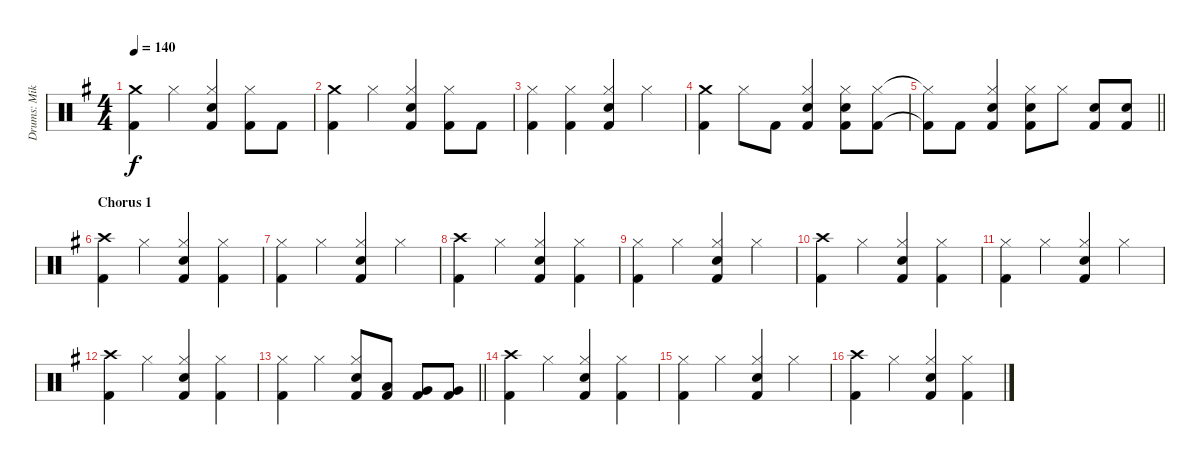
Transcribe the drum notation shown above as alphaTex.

\track ("Drums: Mike Terrana" "Drums: Mik") {instrument percussion}
\staff {score}
\articulation defaults
\ts (4 4)
\tempo 140
\clef neutral
\ks eminor
("Crash medium (hit)" "Kick (hit) 2").4{dy f} "Hi-Hat (closed)".4 ("Hi-Hat (closed)" "Electric Snare (hit)" "Kick (hit) 2").4 ("Hi-Hat (closed)" "Kick (hit) 2").8 "Kick (hit) 2".8 |
("Crash medium (hit)" "Kick (hit) 2").4 "Hi-Hat (closed)".4 ("Hi-Hat (closed)" "Electric Snare (hit)" "Kick (hit) 2").4 ("Hi-Hat (closed)" "Kick (hit) 2").8 "Kick (hit) 2".8 |
("Hi-Hat (closed)" "Kick (hit) 2").4 ("Hi-Hat (closed)" "Kick (hit) 2").4 ("Hi-Hat (closed)" "Electric Snare (hit)" "Kick (hit) 2").4 "Hi-Hat (closed)".4 |
("Crash medium (hit)" "Kick (hit) 2").4 "Hi-Hat (closed)".8 "Kick (hit) 2".8 ("Hi-Hat (closed)" "Electric Snare (hit)" "Kick (hit) 2").4 ("Hi-Hat (closed)" "Electric Snare (hit)" "Kick (hit) 2").8 ("Hi-Hat (closed)" "Kick (hit) 2").8 |
\barLineRight lightlight
("Hi-Hat (closed)"{t} "Kick (hit) 2"{t}).8 "Kick (hit) 2".8 ("Hi-Hat (closed)" "Electric Snare (hit)" "Kick (hit) 2").4 ("Hi-Hat (closed)" "Electric Snare (hit)" "Kick (hit) 2").8 "Hi-Hat (closed)".8 ("Electric Snare (hit)" "Kick (hit) 2").8 ("Electric Snare (hit)" "Kick (hit) 2").8 |
\section ("" "Chorus 1")
("Crash high (hit)" "Kick (hit) 2").4 "Hi-Hat (closed)".4 ("Hi-Hat (closed)" "Electric Snare (hit)" "Kick (hit) 2").4 ("Hi-Hat (closed)" "Kick (hit) 2").4 |
("Hi-Hat (closed)" "Kick (hit) 2").4 "Hi-Hat (closed)".4 ("Hi-Hat (closed)" "Electric Snare (hit)" "Kick (hit) 2").4 "Hi-Hat (closed)".4 |
("Crash high (hit)" "Kick (hit) 2").4 "Hi-Hat (closed)".4 ("Hi-Hat (closed)" "Electric Snare (hit)" "Kick (hit) 2").4 ("Hi-Hat (closed)" "Kick (hit) 2").4 |
("Hi-Hat (closed)" "Kick (hit) 2").4 "Hi-Hat (closed)".4 ("Hi-Hat (closed)" "Electric Snare (hit)" "Kick (hit) 2").4 "Hi-Hat (closed)".4 |
("Crash high (hit)" "Kick (hit) 2").4 "Hi-Hat (closed)".4 ("Hi-Hat (closed)" "Electric Snare (hit)" "Kick (hit) 2").4 ("Hi-Hat (closed)" "Kick (hit) 2").4 |
("Hi-Hat (closed)" "Kick (hit) 2").4 "Hi-Hat (closed)".4 ("Hi-Hat (closed)" "Electric Snare (hit)" "Kick (hit) 2").4 "Hi-Hat (closed)".4 |
("Crash high (hit)" "Kick (hit) 2").4 "Hi-Hat (closed)".4 ("Hi-Hat (closed)" "Electric Snare (hit)" "Kick (hit) 2").4 ("Hi-Hat (closed)" "Kick (hit) 2").4 |
\barLineRight lightlight
("Hi-Hat (closed)" "Kick (hit) 2").4 "Hi-Hat (closed)".4 ("Hi-Hat (closed)" "Electric Snare (hit)" "Kick (hit) 2").8 ("Low Tom (hit)" "Kick (hit) 2").8 ("Very Low Tom (hit)" "Kick (hit) 2").8 ("Very Low Tom (hit)" "Kick (hit) 2").8 |
("Crash high (hit)" "Kick (hit) 2").4 "Hi-Hat (closed)".4 ("Hi-Hat (closed)" "Electric Snare (hit)" "Kick (hit) 2").4 ("Hi-Hat (closed)" "Kick (hit) 2").4 |
("Hi-Hat (closed)" "Kick (hit) 2").4 "Hi-Hat (closed)".4 ("Hi-Hat (closed)" "Electric Snare (hit)" "Kick (hit) 2").4 "Hi-Hat (closed)".4 |
("Crash high (hit)" "Kick (hit) 2").4 "Hi-Hat (closed)".4 ("Hi-Hat (closed)" "Electric Snare (hit)" "Kick (hit) 2").4 ("Hi-Hat (closed)" "Kick (hit) 2").4
